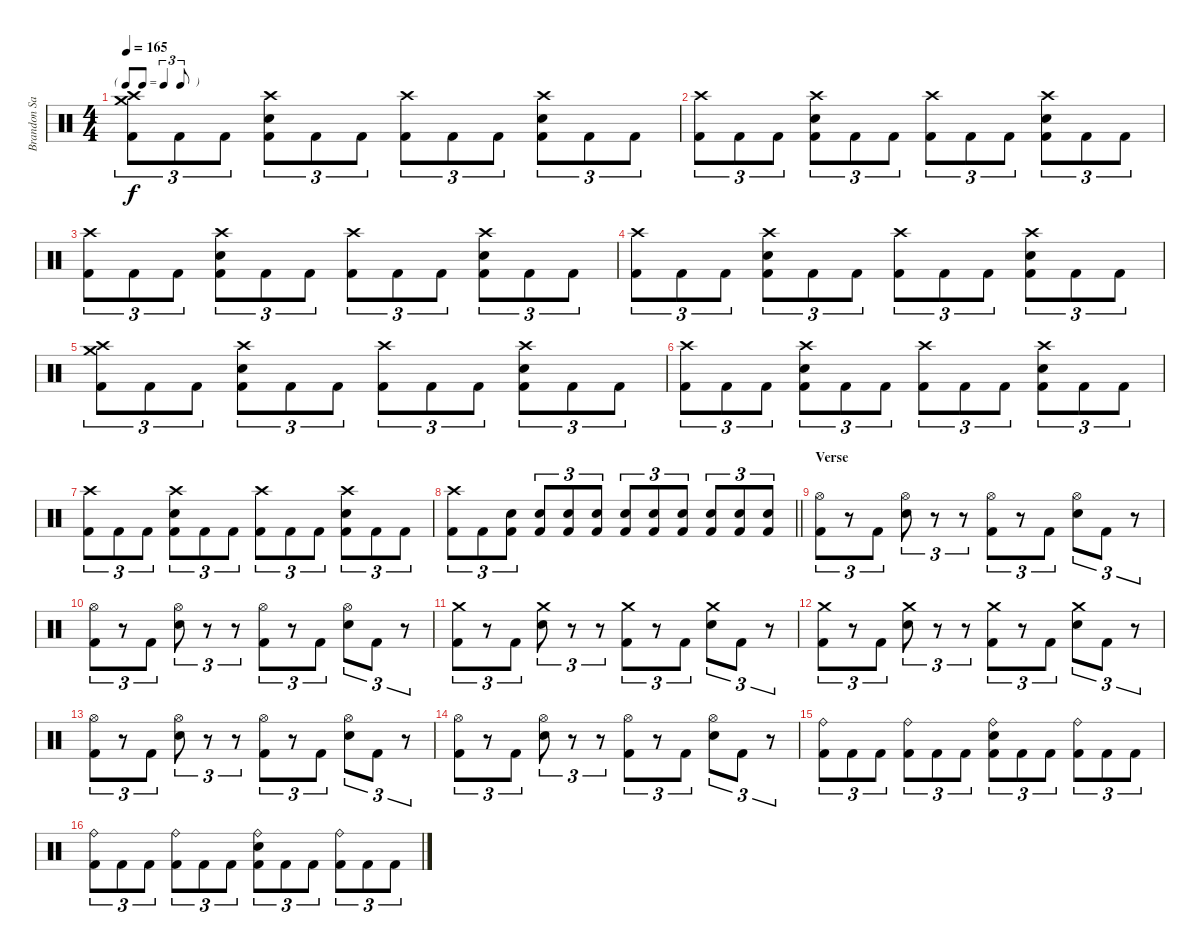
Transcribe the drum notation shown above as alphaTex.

\track ("Brandon Saller" "Brandon Sa") {instrument percussion}
\staff {score}
\articulation defaults
\ts (4 4)
\tf triplet8th
\tempo 165
\clef neutral
\ks c
("Crash high (hit)" "Crash medium (hit)" "Kick (hit) 2").8{tu (3 2) dy f} "Kick (hit) 2".8{tu (3 2)} "Kick (hit) 2".8{tu (3 2)} ("Crash high (hit)" "Electric Snare (hit)" "Kick (hit) 2").8{tu (3 2)} "Kick (hit) 2".8{tu (3 2)} "Kick (hit) 2".8{tu (3 2)} ("Crash high (hit)" "Kick (hit) 2").8{tu (3 2)} "Kick (hit) 2".8{tu (3 2)} "Kick (hit) 2".8{tu (3 2)} ("Crash high (hit)" "Electric Snare (hit)" "Kick (hit) 2").8{tu (3 2)} "Kick (hit) 2".8{tu (3 2)} "Kick (hit) 2".8{tu (3 2)} |
("Crash high (hit)" "Kick (hit) 2").8{tu (3 2)} "Kick (hit) 2".8{tu (3 2)} "Kick (hit) 2".8{tu (3 2)} ("Crash high (hit)" "Electric Snare (hit)" "Kick (hit) 2").8{tu (3 2)} "Kick (hit) 2".8{tu (3 2)} "Kick (hit) 2".8{tu (3 2)} ("Crash high (hit)" "Kick (hit) 2").8{tu (3 2)} "Kick (hit) 2".8{tu (3 2)} "Kick (hit) 2".8{tu (3 2)} ("Crash high (hit)" "Electric Snare (hit)" "Kick (hit) 2").8{tu (3 2)} "Kick (hit) 2".8{tu (3 2)} "Kick (hit) 2".8{tu (3 2)} |
("Crash high (hit)" "Kick (hit) 2").8{tu (3 2)} "Kick (hit) 2".8{tu (3 2)} "Kick (hit) 2".8{tu (3 2)} ("Crash high (hit)" "Electric Snare (hit)" "Kick (hit) 2").8{tu (3 2)} "Kick (hit) 2".8{tu (3 2)} "Kick (hit) 2".8{tu (3 2)} ("Crash high (hit)" "Kick (hit) 2").8{tu (3 2)} "Kick (hit) 2".8{tu (3 2)} "Kick (hit) 2".8{tu (3 2)} ("Crash high (hit)" "Electric Snare (hit)" "Kick (hit) 2").8{tu (3 2)} "Kick (hit) 2".8{tu (3 2)} "Kick (hit) 2".8{tu (3 2)} |
("Crash high (hit)" "Kick (hit) 2").8{tu (3 2)} "Kick (hit) 2".8{tu (3 2)} "Kick (hit) 2".8{tu (3 2)} ("Crash high (hit)" "Electric Snare (hit)" "Kick (hit) 2").8{tu (3 2)} "Kick (hit) 2".8{tu (3 2)} "Kick (hit) 2".8{tu (3 2)} ("Crash high (hit)" "Kick (hit) 2").8{tu (3 2)} "Kick (hit) 2".8{tu (3 2)} "Kick (hit) 2".8{tu (3 2)} ("Crash high (hit)" "Electric Snare (hit)" "Kick (hit) 2").8{tu (3 2)} "Kick (hit) 2".8{tu (3 2)} "Kick (hit) 2".8{tu (3 2)} |
("Crash high (hit)" "Crash medium (hit)" "Kick (hit) 2").8{tu (3 2)} "Kick (hit) 2".8{tu (3 2)} "Kick (hit) 2".8{tu (3 2)} ("Crash high (hit)" "Electric Snare (hit)" "Kick (hit) 2").8{tu (3 2)} "Kick (hit) 2".8{tu (3 2)} "Kick (hit) 2".8{tu (3 2)} ("Crash high (hit)" "Kick (hit) 2").8{tu (3 2)} "Kick (hit) 2".8{tu (3 2)} "Kick (hit) 2".8{tu (3 2)} ("Crash high (hit)" "Electric Snare (hit)" "Kick (hit) 2").8{tu (3 2)} "Kick (hit) 2".8{tu (3 2)} "Kick (hit) 2".8{tu (3 2)} |
("Crash high (hit)" "Kick (hit) 2").8{tu (3 2)} "Kick (hit) 2".8{tu (3 2)} "Kick (hit) 2".8{tu (3 2)} ("Crash high (hit)" "Electric Snare (hit)" "Kick (hit) 2").8{tu (3 2)} "Kick (hit) 2".8{tu (3 2)} "Kick (hit) 2".8{tu (3 2)} ("Crash high (hit)" "Kick (hit) 2").8{tu (3 2)} "Kick (hit) 2".8{tu (3 2)} "Kick (hit) 2".8{tu (3 2)} ("Crash high (hit)" "Electric Snare (hit)" "Kick (hit) 2").8{tu (3 2)} "Kick (hit) 2".8{tu (3 2)} "Kick (hit) 2".8{tu (3 2)} |
("Crash high (hit)" "Kick (hit) 2").8{tu (3 2)} "Kick (hit) 2".8{tu (3 2)} "Kick (hit) 2".8{tu (3 2)} ("Crash high (hit)" "Electric Snare (hit)" "Kick (hit) 2").8{tu (3 2)} "Kick (hit) 2".8{tu (3 2)} "Kick (hit) 2".8{tu (3 2)} ("Crash high (hit)" "Kick (hit) 2").8{tu (3 2)} "Kick (hit) 2".8{tu (3 2)} "Kick (hit) 2".8{tu (3 2)} ("Crash high (hit)" "Electric Snare (hit)" "Kick (hit) 2").8{tu (3 2)} "Kick (hit) 2".8{tu (3 2)} "Kick (hit) 2".8{tu (3 2)} |
\barLineRight lightlight
("Crash high (hit)" "Kick (hit) 2").8{tu (3 2)} "Kick (hit) 2".8{tu (3 2)} ("Electric Snare (hit)" "Kick (hit) 2").8{tu (3 2)} ("Electric Snare (hit)" "Kick (hit) 2").8{tu (3 2)} ("Electric Snare (hit)" "Kick (hit) 2").8{tu (3 2)} ("Electric Snare (hit)" "Kick (hit) 2").8{tu (3 2)} ("Electric Snare (hit)" "Kick (hit) 2").8{tu (3 2)} ("Electric Snare (hit)" "Kick (hit) 2").8{tu (3 2)} ("Electric Snare (hit)" "Kick (hit) 2").8{tu (3 2)} ("Electric Snare (hit)" "Kick (hit) 2").8{tu (3 2)} ("Electric Snare (hit)" "Kick (hit) 2").8{tu (3 2)} ("Electric Snare (hit)" "Kick (hit) 2").8{tu (3 2)} |
\section ("" "Verse")
("Hi-Hat (open)" "Kick (hit) 2").8{tu (3 2)} r.8{tu (3 2)} "Kick (hit) 2".8{tu (3 2)} ("Hi-Hat (open)" "Electric Snare (hit)").8{tu (3 2)} r.8{tu (3 2)} r.8{tu (3 2)} ("Hi-Hat (open)" "Kick (hit) 2").8{tu (3 2)} r.8{tu (3 2)} "Kick (hit) 2".8{tu (3 2)} ("Hi-Hat (open)" "Electric Snare (hit)").8{tu (3 2)} "Kick (hit) 2".8{tu (3 2)} r.8{tu (3 2)} |
("Hi-Hat (open)" "Kick (hit) 2").8{tu (3 2)} r.8{tu (3 2)} "Kick (hit) 2".8{tu (3 2)} ("Hi-Hat (open)" "Electric Snare (hit)").8{tu (3 2)} r.8{tu (3 2)} r.8{tu (3 2)} ("Hi-Hat (open)" "Kick (hit) 2").8{tu (3 2)} r.8{tu (3 2)} "Kick (hit) 2".8{tu (3 2)} ("Hi-Hat (open)" "Electric Snare (hit)").8{tu (3 2)} "Kick (hit) 2".8{tu (3 2)} r.8{tu (3 2)} |
("Crash medium (hit)" "Kick (hit) 2").8{tu (3 2)} r.8{tu (3 2)} "Kick (hit) 2".8{tu (3 2)} ("Crash medium (hit)" "Electric Snare (hit)").8{tu (3 2)} r.8{tu (3 2)} r.8{tu (3 2)} ("Crash medium (hit)" "Kick (hit) 2").8{tu (3 2)} r.8{tu (3 2)} "Kick (hit) 2".8{tu (3 2)} ("Crash medium (hit)" "Electric Snare (hit)").8{tu (3 2)} "Kick (hit) 2".8{tu (3 2)} r.8{tu (3 2)} |
("Crash medium (hit)" "Kick (hit) 2").8{tu (3 2)} r.8{tu (3 2)} "Kick (hit) 2".8{tu (3 2)} ("Crash medium (hit)" "Electric Snare (hit)").8{tu (3 2)} r.8{tu (3 2)} r.8{tu (3 2)} ("Crash medium (hit)" "Kick (hit) 2").8{tu (3 2)} r.8{tu (3 2)} "Kick (hit) 2".8{tu (3 2)} ("Crash medium (hit)" "Electric Snare (hit)").8{tu (3 2)} "Kick (hit) 2".8{tu (3 2)} r.8{tu (3 2)} |
("Hi-Hat (open)" "Kick (hit) 2").8{tu (3 2)} r.8{tu (3 2)} "Kick (hit) 2".8{tu (3 2)} ("Hi-Hat (open)" "Electric Snare (hit)").8{tu (3 2)} r.8{tu (3 2)} r.8{tu (3 2)} ("Hi-Hat (open)" "Kick (hit) 2").8{tu (3 2)} r.8{tu (3 2)} "Kick (hit) 2".8{tu (3 2)} ("Hi-Hat (open)" "Electric Snare (hit)").8{tu (3 2)} "Kick (hit) 2".8{tu (3 2)} r.8{tu (3 2)} |
("Hi-Hat (open)" "Kick (hit) 2").8{tu (3 2)} r.8{tu (3 2)} "Kick (hit) 2".8{tu (3 2)} ("Hi-Hat (open)" "Electric Snare (hit)").8{tu (3 2)} r.8{tu (3 2)} r.8{tu (3 2)} ("Hi-Hat (open)" "Kick (hit) 2").8{tu (3 2)} r.8{tu (3 2)} "Kick (hit) 2".8{tu (3 2)} ("Hi-Hat (open)" "Electric Snare (hit)").8{tu (3 2)} "Kick (hit) 2".8{tu (3 2)} r.8{tu (3 2)} |
("Ride (bell)" "Kick (hit) 2").8{tu (3 2)} "Kick (hit) 2".8{tu (3 2)} "Kick (hit) 2".8{tu (3 2)} ("Ride (bell)" "Kick (hit) 2").8{tu (3 2)} "Kick (hit) 2".8{tu (3 2)} "Kick (hit) 2".8{tu (3 2)} ("Ride (bell)" "Electric Snare (hit)" "Kick (hit) 2").8{tu (3 2)} "Kick (hit) 2".8{tu (3 2)} "Kick (hit) 2".8{tu (3 2)} ("Ride (bell)" "Kick (hit) 2").8{tu (3 2)} "Kick (hit) 2".8{tu (3 2)} "Kick (hit) 2".8{tu (3 2)} |
("Ride (bell)" "Kick (hit) 2").8{tu (3 2)} "Kick (hit) 2".8{tu (3 2)} "Kick (hit) 2".8{tu (3 2)} ("Ride (bell)" "Kick (hit) 2").8{tu (3 2)} "Kick (hit) 2".8{tu (3 2)} "Kick (hit) 2".8{tu (3 2)} ("Ride (bell)" "Electric Snare (hit)" "Kick (hit) 2").8{tu (3 2)} "Kick (hit) 2".8{tu (3 2)} "Kick (hit) 2".8{tu (3 2)} ("Ride (bell)" "Kick (hit) 2").8{tu (3 2)} "Kick (hit) 2".8{tu (3 2)} "Kick (hit) 2".8{tu (3 2)}
